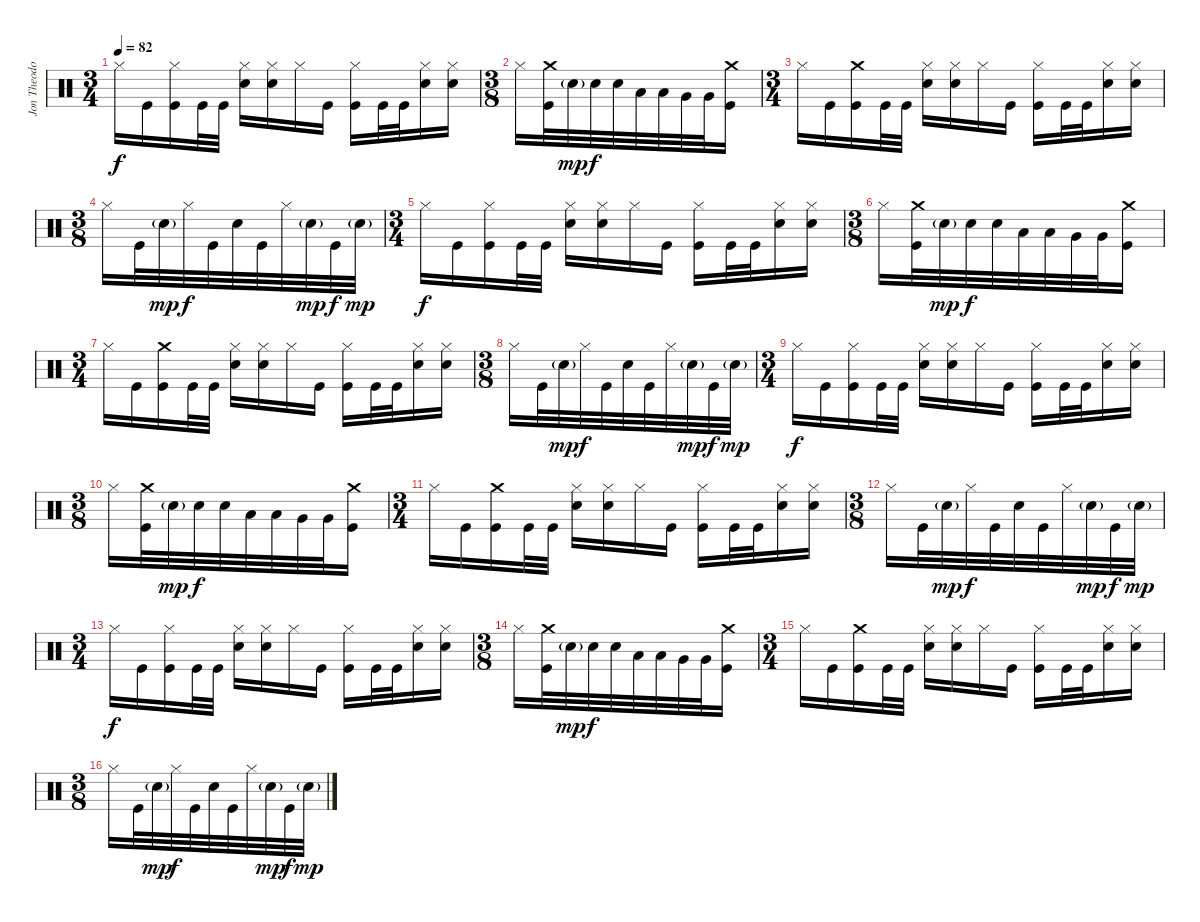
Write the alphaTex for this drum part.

\track ("Jon Theodore" "Jon Theodo") {instrument percussion}
\staff {score}
\articulation defaults
\ts (3 4)
\tempo 82
\clef neutral
\ks c "Hi-Hat (closed)".16{dy f} "Kick (hit)".16
("Hi-Hat (closed)" "Kick (hit)").16 "Kick (hit)".32 "Kick (hit)".32 ("Hi-Hat (closed)" "Snare (hit) 2").16 ("Hi-Hat (closed)" "Snare (hit) 2").16 "Hi-Hat (closed)".16 "Kick (hit)".16 ("Hi-Hat (closed)" "Kick (hit)").16 "Kick (hit)".32 "Kick (hit)".32 ("Hi-Hat (closed)" "Snare (hit) 2").16 ("Hi-Hat (closed)" "Snare (hit) 2").16 |
\ts (3 8)
"Hi-Hat (closed)".16 ("Crash medium (hit)" "Kick (hit)").32 "Snare (hit) 2"{g}.32{dy mp} "Snare (hit) 2".32{dy f} "Snare (hit) 2".32 "Low Tom (hit)".32 "Low Tom (hit)".32 "Very Low Tom (hit)".32 "Very Low Tom (hit)".32 ("Crash medium (hit)" "Kick (hit)").16 |
\ts (3 4)
"Hi-Hat (closed)".16 "Kick (hit)".16 ("Crash medium (hit)" "Kick (hit)").16 "Kick (hit)".32 "Kick (hit)".32 ("Hi-Hat (closed)" "Snare (hit) 2").16 ("Hi-Hat (closed)" "Snare (hit) 2").16 "Hi-Hat (closed)".16 "Kick (hit)".16 ("Hi-Hat (closed)" "Kick (hit)").16 "Kick (hit)".32 "Kick (hit)".32 ("Hi-Hat (closed)" "Snare (hit) 2").16 ("Hi-Hat (closed)" "Snare (hit) 2").16 |
\ts (3 8)
"Hi-Hat (closed)".16 "Kick (hit)".32 "Snare (hit) 2"{g}.32{dy mp} "Hi-Hat (closed)".32{dy f} "Kick (hit)".32 "Snare (hit) 2".32 "Kick (hit)".32 "Hi-Hat (closed)".32 "Snare (hit) 2"{g}.32{dy mp} "Kick (hit)".32{dy f} "Snare (hit) 2"{g}.32{dy mp} |
\ts (3 4)
"Hi-Hat (closed)".16{dy f} "Kick (hit)".16 ("Hi-Hat (closed)" "Kick (hit)").16 "Kick (hit)".32 "Kick (hit)".32 ("Hi-Hat (closed)" "Snare (hit) 2").16 ("Hi-Hat (closed)" "Snare (hit) 2").16 "Hi-Hat (closed)".16 "Kick (hit)".16 ("Hi-Hat (closed)" "Kick (hit)").16 "Kick (hit)".32 "Kick (hit)".32 ("Hi-Hat (closed)" "Snare (hit) 2").16 ("Hi-Hat (closed)" "Snare (hit) 2").16 |
\ts (3 8)
"Hi-Hat (closed)".16 ("Crash medium (hit)" "Kick (hit)").32 "Snare (hit) 2"{g}.32{dy mp} "Snare (hit) 2".32{dy f} "Snare (hit) 2".32 "Low Tom (hit)".32 "Low Tom (hit)".32 "Very Low Tom (hit)".32 "Very Low Tom (hit)".32 ("Crash medium (hit)" "Kick (hit)").16 |
\ts (3 4)
"Hi-Hat (closed)".16 "Kick (hit)".16 ("Crash medium (hit)" "Kick (hit)").16 "Kick (hit)".32 "Kick (hit)".32 ("Hi-Hat (closed)" "Snare (hit) 2").16 ("Hi-Hat (closed)" "Snare (hit) 2").16 "Hi-Hat (closed)".16 "Kick (hit)".16 ("Hi-Hat (closed)" "Kick (hit)").16 "Kick (hit)".32 "Kick (hit)".32 ("Hi-Hat (closed)" "Snare (hit) 2").16 ("Hi-Hat (closed)" "Snare (hit) 2").16 |
\ts (3 8)
"Hi-Hat (closed)".16 "Kick (hit)".32 "Snare (hit) 2"{g}.32{dy mp} "Hi-Hat (closed)".32{dy f} "Kick (hit)".32 "Snare (hit) 2".32 "Kick (hit)".32 "Hi-Hat (closed)".32 "Snare (hit) 2"{g}.32{dy mp} "Kick (hit)".32{dy f} "Snare (hit) 2"{g}.32{dy mp} |
\ts (3 4)
"Hi-Hat (closed)".16{dy f} "Kick (hit)".16 ("Hi-Hat (closed)" "Kick (hit)").16 "Kick (hit)".32 "Kick (hit)".32 ("Hi-Hat (closed)" "Snare (hit) 2").16 ("Hi-Hat (closed)" "Snare (hit) 2").16 "Hi-Hat (closed)".16 "Kick (hit)".16 ("Hi-Hat (closed)" "Kick (hit)").16 "Kick (hit)".32 "Kick (hit)".32 ("Hi-Hat (closed)" "Snare (hit) 2").16 ("Hi-Hat (closed)" "Snare (hit) 2").16 |
\ts (3 8)
"Hi-Hat (closed)".16 ("Crash medium (hit)" "Kick (hit)").32 "Snare (hit) 2"{g}.32{dy mp} "Snare (hit) 2".32{dy f} "Snare (hit) 2".32 "Low Tom (hit)".32 "Low Tom (hit)".32 "Very Low Tom (hit)".32 "Very Low Tom (hit)".32 ("Crash medium (hit)" "Kick (hit)").16 |
\ts (3 4)
"Hi-Hat (closed)".16 "Kick (hit)".16 ("Crash medium (hit)" "Kick (hit)").16 "Kick (hit)".32 "Kick (hit)".32 ("Hi-Hat (closed)" "Snare (hit) 2").16 ("Hi-Hat (closed)" "Snare (hit) 2").16 "Hi-Hat (closed)".16 "Kick (hit)".16 ("Hi-Hat (closed)" "Kick (hit)").16 "Kick (hit)".32 "Kick (hit)".32 ("Hi-Hat (closed)" "Snare (hit) 2").16 ("Hi-Hat (closed)" "Snare (hit) 2").16 |
\ts (3 8)
"Hi-Hat (closed)".16 "Kick (hit)".32 "Snare (hit) 2"{g}.32{dy mp} "Hi-Hat (closed)".32{dy f} "Kick (hit)".32 "Snare (hit) 2".32 "Kick (hit)".32 "Hi-Hat (closed)".32 "Snare (hit) 2"{g}.32{dy mp} "Kick (hit)".32{dy f} "Snare (hit) 2"{g}.32{dy mp} |
\ts (3 4)
"Hi-Hat (closed)".16{dy f} "Kick (hit)".16 ("Hi-Hat (closed)" "Kick (hit)").16 "Kick (hit)".32 "Kick (hit)".32 ("Hi-Hat (closed)" "Snare (hit) 2").16 ("Hi-Hat (closed)" "Snare (hit) 2").16 "Hi-Hat (closed)".16 "Kick (hit)".16 ("Hi-Hat (closed)" "Kick (hit)").16 "Kick (hit)".32 "Kick (hit)".32 ("Hi-Hat (closed)" "Snare (hit) 2").16 ("Hi-Hat (closed)" "Snare (hit) 2").16 |
\ts (3 8)
"Hi-Hat (closed)".16 ("Crash medium (hit)" "Kick (hit)").32 "Snare (hit) 2"{g}.32{dy mp} "Snare (hit) 2".32{dy f} "Snare (hit) 2".32 "Low Tom (hit)".32 "Low Tom (hit)".32 "Very Low Tom (hit)".32 "Very Low Tom (hit)".32 ("Crash medium (hit)" "Kick (hit)").16 |
\ts (3 4)
"Hi-Hat (closed)".16 "Kick (hit)".16 ("Crash medium (hit)" "Kick (hit)").16 "Kick (hit)".32 "Kick (hit)".32 ("Hi-Hat (closed)" "Snare (hit) 2").16 ("Hi-Hat (closed)" "Snare (hit) 2").16 "Hi-Hat (closed)".16 "Kick (hit)".16 ("Hi-Hat (closed)" "Kick (hit)").16 "Kick (hit)".32 "Kick (hit)".32 ("Hi-Hat (closed)" "Snare (hit) 2").16 ("Hi-Hat (closed)" "Snare (hit) 2").16 |
\ts (3 8)
"Hi-Hat (closed)".16 "Kick (hit)".32 "Snare (hit) 2"{g}.32{dy mp} "Hi-Hat (closed)".32{dy f} "Kick (hit)".32 "Snare (hit) 2".32 "Kick (hit)".32 "Hi-Hat (closed)".32 "Snare (hit) 2"{g}.32{dy mp} "Kick (hit)".32{dy f} "Snare (hit) 2"{g}.32{dy mp}
